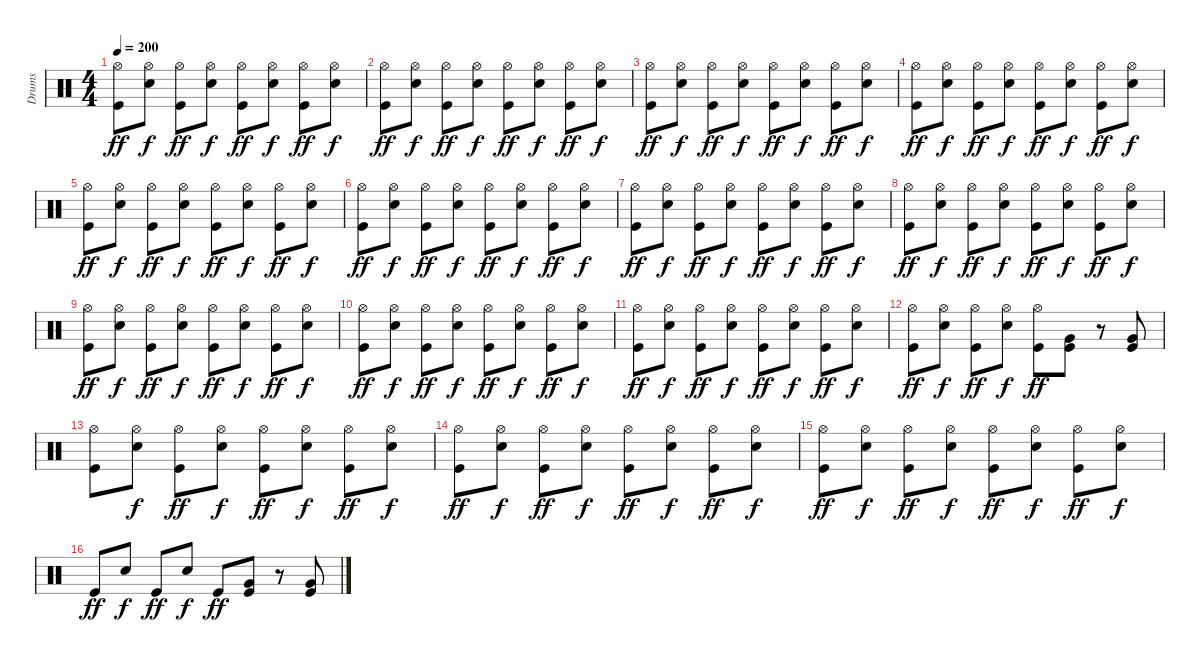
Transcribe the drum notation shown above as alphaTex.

\track ("Drums" "Drums") {instrument percussion}
\staff {score}
\articulation defaults
\ts (4 4)
\tempo 200
\clef neutral
\ks c
("Hi-Hat (open)" "Kick (hit)").8{dy ff} ("Hi-Hat (open)" "Electric Snare (hit)").8{dy f} ("Hi-Hat (open)" "Kick (hit)").8{dy ff} ("Hi-Hat (open)" "Electric Snare (hit)").8{dy f} ("Hi-Hat (open)" "Kick (hit)").8{dy ff} ("Hi-Hat (open)" "Electric Snare (hit)").8{dy f} ("Hi-Hat (open)" "Kick (hit)").8{dy ff} ("Hi-Hat (open)" "Electric Snare (hit)").8{dy f} |
("Hi-Hat (open)" "Kick (hit)").8{dy ff} ("Hi-Hat (open)" "Electric Snare (hit)").8{dy f} ("Hi-Hat (open)" "Kick (hit)").8{dy ff} ("Hi-Hat (open)" "Electric Snare (hit)").8{dy f} ("Hi-Hat (open)" "Kick (hit)").8{dy ff} ("Hi-Hat (open)" "Electric Snare (hit)").8{dy f} ("Hi-Hat (open)" "Kick (hit)").8{dy ff} ("Hi-Hat (open)" "Electric Snare (hit)").8{dy f} |
("Hi-Hat (open)" "Kick (hit)").8{dy ff} ("Hi-Hat (open)" "Electric Snare (hit)").8{dy f} ("Hi-Hat (open)" "Kick (hit)").8{dy ff} ("Hi-Hat (open)" "Electric Snare (hit)").8{dy f} ("Hi-Hat (open)" "Kick (hit)").8{dy ff} ("Hi-Hat (open)" "Electric Snare (hit)").8{dy f} ("Hi-Hat (open)" "Kick (hit)").8{dy ff} ("Hi-Hat (open)" "Electric Snare (hit)").8{dy f} |
("Hi-Hat (open)" "Kick (hit)").8{dy ff} ("Hi-Hat (open)" "Electric Snare (hit)").8{dy f} ("Hi-Hat (open)" "Kick (hit)").8{dy ff} ("Hi-Hat (open)" "Electric Snare (hit)").8{dy f} ("Hi-Hat (open)" "Kick (hit)").8{dy ff} ("Hi-Hat (open)" "Electric Snare (hit)").8{dy f} ("Hi-Hat (open)" "Kick (hit)").8{dy ff} ("Hi-Hat (open)" "Electric Snare (hit)").8{dy f} |
("Hi-Hat (open)" "Kick (hit)").8{dy ff} ("Hi-Hat (open)" "Electric Snare (hit)").8{dy f} ("Hi-Hat (open)" "Kick (hit)").8{dy ff} ("Hi-Hat (open)" "Electric Snare (hit)").8{dy f} ("Hi-Hat (open)" "Kick (hit)").8{dy ff} ("Hi-Hat (open)" "Electric Snare (hit)").8{dy f} ("Hi-Hat (open)" "Kick (hit)").8{dy ff} ("Hi-Hat (open)" "Electric Snare (hit)").8{dy f} |
("Hi-Hat (open)" "Kick (hit)").8{dy ff} ("Hi-Hat (open)" "Electric Snare (hit)").8{dy f} ("Hi-Hat (open)" "Kick (hit)").8{dy ff} ("Hi-Hat (open)" "Electric Snare (hit)").8{dy f} ("Hi-Hat (open)" "Kick (hit)").8{dy ff} ("Hi-Hat (open)" "Electric Snare (hit)").8{dy f} ("Hi-Hat (open)" "Kick (hit)").8{dy ff} ("Hi-Hat (open)" "Electric Snare (hit)").8{dy f} |
("Hi-Hat (open)" "Kick (hit)").8{dy ff} ("Hi-Hat (open)" "Electric Snare (hit)").8{dy f} ("Hi-Hat (open)" "Kick (hit)").8{dy ff} ("Hi-Hat (open)" "Electric Snare (hit)").8{dy f} ("Hi-Hat (open)" "Kick (hit)").8{dy ff} ("Hi-Hat (open)" "Electric Snare (hit)").8{dy f} ("Hi-Hat (open)" "Kick (hit)").8{dy ff} ("Hi-Hat (open)" "Electric Snare (hit)").8{dy f} |
("Hi-Hat (open)" "Kick (hit)").8{dy ff} ("Hi-Hat (open)" "Electric Snare (hit)").8{dy f} ("Hi-Hat (open)" "Kick (hit)").8{dy ff} ("Hi-Hat (open)" "Electric Snare (hit)").8{dy f} ("Hi-Hat (open)" "Kick (hit)").8{dy ff} ("Hi-Hat (open)" "Electric Snare (hit)").8{dy f} ("Hi-Hat (open)" "Kick (hit)").8{dy ff} ("Hi-Hat (open)" "Electric Snare (hit)").8{dy f} |
("Hi-Hat (open)" "Kick (hit)").8{dy ff} ("Hi-Hat (open)" "Electric Snare (hit)").8{dy f} ("Hi-Hat (open)" "Kick (hit)").8{dy ff} ("Hi-Hat (open)" "Electric Snare (hit)").8{dy f} ("Hi-Hat (open)" "Kick (hit)").8{dy ff} ("Hi-Hat (open)" "Electric Snare (hit)").8{dy f} ("Hi-Hat (open)" "Kick (hit)").8{dy ff} ("Hi-Hat (open)" "Electric Snare (hit)").8{dy f} |
("Hi-Hat (open)" "Kick (hit)").8{dy ff} ("Hi-Hat (open)" "Electric Snare (hit)").8{dy f} ("Hi-Hat (open)" "Kick (hit)").8{dy ff} ("Hi-Hat (open)" "Electric Snare (hit)").8{dy f} ("Hi-Hat (open)" "Kick (hit)").8{dy ff} ("Hi-Hat (open)" "Electric Snare (hit)").8{dy f} ("Hi-Hat (open)" "Kick (hit)").8{dy ff} ("Hi-Hat (open)" "Electric Snare (hit)").8{dy f} |
("Hi-Hat (open)" "Kick (hit)").8{dy ff} ("Hi-Hat (open)" "Electric Snare (hit)").8{dy f} ("Hi-Hat (open)" "Kick (hit)").8{dy ff} ("Hi-Hat (open)" "Electric Snare (hit)").8{dy f} ("Hi-Hat (open)" "Kick (hit)").8{dy ff} ("Hi-Hat (open)" "Electric Snare (hit)").8{dy f} ("Hi-Hat (open)" "Kick (hit)").8{dy ff} ("Hi-Hat (open)" "Electric Snare (hit)").8{dy f} |
("Hi-Hat (open)" "Kick (hit)").8{dy ff} ("Hi-Hat (open)" "Electric Snare (hit)").8{dy f} ("Hi-Hat (open)" "Kick (hit)").8{dy ff} ("Hi-Hat (open)" "Electric Snare (hit)").8{dy f} ("Hi-Hat (open)" "Kick (hit)").8{dy ff} ("Very Low Tom (hit)" "Kick (hit)").8 r.8 ("Very Low Tom (hit)" "Kick (hit)").8 |
("Hi-Hat (open)" "Kick (hit)").8 ("Hi-Hat (open)" "Electric Snare (hit)").8{dy f} ("Hi-Hat (open)" "Kick (hit)").8{dy ff} ("Hi-Hat (open)" "Electric Snare (hit)").8{dy f} ("Hi-Hat (open)" "Kick (hit)").8{dy ff} ("Hi-Hat (open)" "Electric Snare (hit)").8{dy f} ("Hi-Hat (open)" "Kick (hit)").8{dy ff} ("Hi-Hat (open)" "Electric Snare (hit)").8{dy f} |
("Hi-Hat (open)" "Kick (hit)").8{dy ff} ("Hi-Hat (open)" "Electric Snare (hit)").8{dy f} ("Hi-Hat (open)" "Kick (hit)").8{dy ff} ("Hi-Hat (open)" "Electric Snare (hit)").8{dy f} ("Hi-Hat (open)" "Kick (hit)").8{dy ff} ("Hi-Hat (open)" "Electric Snare (hit)").8{dy f} ("Hi-Hat (open)" "Kick (hit)").8{dy ff} ("Hi-Hat (open)" "Electric Snare (hit)").8{dy f} |
("Hi-Hat (open)" "Kick (hit)").8{dy ff} ("Hi-Hat (open)" "Electric Snare (hit)").8{dy f} ("Hi-Hat (open)" "Kick (hit)").8{dy ff} ("Hi-Hat (open)" "Electric Snare (hit)").8{dy f} ("Hi-Hat (open)" "Kick (hit)").8{dy ff} ("Hi-Hat (open)" "Electric Snare (hit)").8{dy f} ("Hi-Hat (open)" "Kick (hit)").8{dy ff} ("Hi-Hat (open)" "Electric Snare (hit)").8{dy f} |
"Kick (hit)".8{dy ff} "Electric Snare (hit)".8{dy f} "Kick (hit)".8{dy ff} "Electric Snare (hit)".8{dy f} "Kick (hit)".8{dy ff} ("Very Low Tom (hit)" "Kick (hit)").8 r.8 ("Very Low Tom (hit)" "Kick (hit)").8
